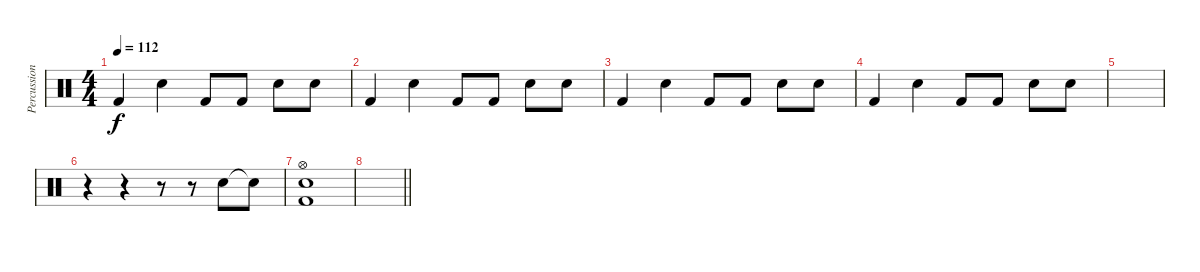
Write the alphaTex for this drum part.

\track ("Percussions" "Percussion") {instrument percussion}
\staff {score}
\articulation defaults
\ts (4 4)
\tempo 112
\clef neutral
\ks c "Kick (hit) 2".4{dy f} "Electric Snare (hit)".4 "Kick (hit) 2".8 "Kick (hit) 2".8 "Electric Snare (hit)".8 "Electric Snare (hit)".8
|
"Kick (hit) 2".4 "Electric Snare (hit)".4 "Kick (hit) 2".8 "Kick (hit) 2".8 "Electric Snare (hit)".8 "Electric Snare (hit)".8 |
"Kick (hit) 2".4 "Electric Snare (hit)".4 "Kick (hit) 2".8 "Kick (hit) 2".8 "Electric Snare (hit)".8 "Electric Snare (hit)".8 |
"Kick (hit) 2".4 "Electric Snare (hit)".4 "Kick (hit) 2".8 "Kick (hit) 2".8 "Electric Snare (hit)".8 "Electric Snare (hit)".8 |
|
r.4 r.4 r.8 r.8 "Electric Snare (hit)".8 "Electric Snare (hit)"{t}.8 |
("Electric Snare (hit)" "Hi-Hat (open)" "Kick (hit) 2").1 |
\barLineRight lightlight
